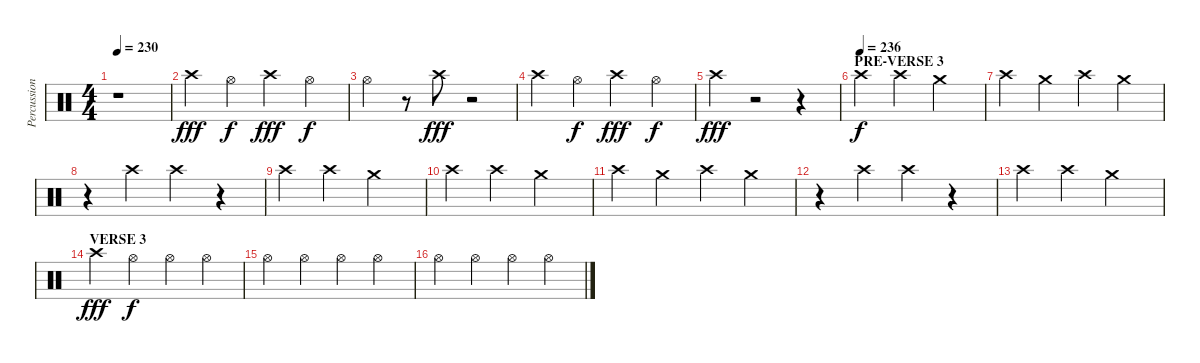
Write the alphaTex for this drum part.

\track ("Percussions" "Percussion") {instrument percussion}
\staff {score}
\articulation defaults
\ts (4 4)
\tempo 230
\clef neutral
\ks c
r.1{dy f} |
"Crash high (hit)".4{dy fff} "Hi-Hat (open)".4{dy f} "Crash high (hit)".4{dy fff} "Hi-Hat (open)".4{dy f} |
"Hi-Hat (open)".4 r.8 "Crash high (hit)".8{dy fff} r.2 |
"Crash high (hit)".4 "Hi-Hat (open)".4{dy f} "Crash high (hit)".4{dy fff} "Hi-Hat (open)".4{dy f} |
"Crash high (hit)".4{dy fff} r.2 r.4 |
\section ("" "PRE-VERSE 3")
\tempo (236)
"Crash high (hit)".4{dy f} "Crash high (hit)".4 "Crash medium (hit)".2 |
"Crash high (hit)".4 "Crash medium (hit)".4 "Crash high (hit)".4 "Crash medium (hit)".4 |
r.4 "Crash high (hit)".4 "Crash high (hit)".4 r.4 |
"Crash high (hit)".4 "Crash high (hit)".4 "Crash medium (hit)".2 |
"Crash high (hit)".4 "Crash high (hit)".4 "Crash medium (hit)".2 |
"Crash high (hit)".4 "Crash medium (hit)".4 "Crash high (hit)".4 "Crash medium (hit)".4 |
r.4 "Crash high (hit)".4 "Crash high (hit)".4 r.4 |
"Crash high (hit)".4 "Crash high (hit)".4 "Crash medium (hit)".2 |
\section ("" "VERSE 3")
"Crash high (hit)".4{dy fff} "Hi-Hat (open)".4{dy f} "Hi-Hat (open)".4 "Hi-Hat (open)".4 |
"Hi-Hat (open)".4 "Hi-Hat (open)".4 "Hi-Hat (open)".4 "Hi-Hat (open)".4 |
"Hi-Hat (open)".4 "Hi-Hat (open)".4 "Hi-Hat (open)".4 "Hi-Hat (open)".4
